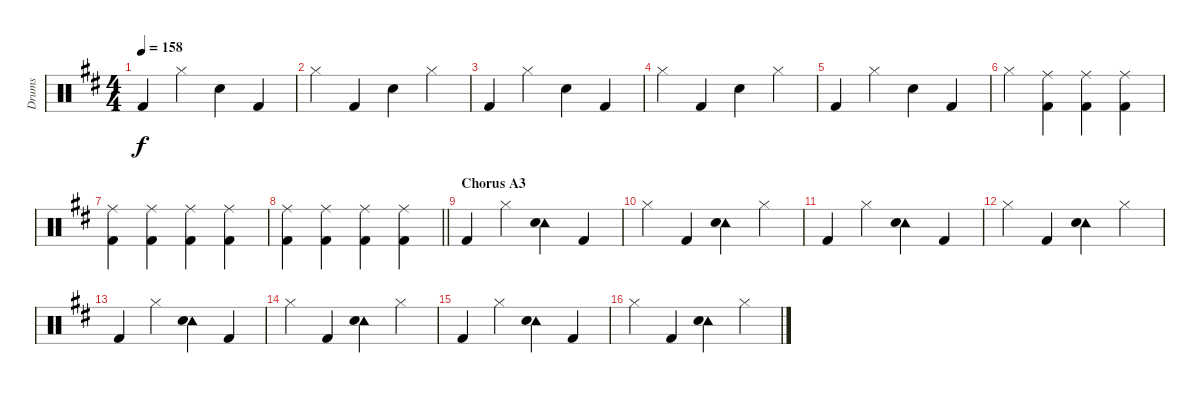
\track ("Drums" "Drums") {instrument percussion}
\staff {score}
\articulation defaults
\ts (4 4)
\tempo 158
\clef neutral
\ks d "Kick (hit) 2".4{dy f} "Hi-Hat (closed)".4 "Snare (hit) 2".4 "Kick (hit) 2".4
|
"Hi-Hat (closed)".4 "Kick (hit) 2".4 "Snare (hit) 2".4 "Hi-Hat (closed)".4 |
"Kick (hit) 2".4 "Hi-Hat (closed)".4 "Snare (hit) 2".4 "Kick (hit) 2".4 |
"Hi-Hat (closed)".4 "Kick (hit) 2".4 "Snare (hit) 2".4 "Hi-Hat (closed)".4 |
"Kick (hit) 2".4 "Hi-Hat (closed)".4 "Snare (hit) 2".4 "Kick (hit) 2".4 |
"Hi-Hat (closed)".4{volume 2} ("Ride (middle)" "Kick (hit) 2").4{volume 4} ("Ride (middle)" "Kick (hit) 2").4 ("Ride (middle)" "Kick (hit) 2").4 |
("Ride (middle)" "Kick (hit) 2").4 ("Ride (middle)" "Kick (hit) 2").4 ("Ride (middle)" "Kick (hit) 2").4 ("Ride (middle)" "Kick (hit) 2").4 |
\barLineRight lightlight
("Ride (middle)" "Kick (hit) 2").4 ("Ride (middle)" "Kick (hit) 2").4 ("Ride (middle)" "Kick (hit) 2").4 ("Ride (middle)" "Kick (hit) 2").4 |
\section ("" "Chorus A3")
"Kick (hit) 2".4{volume 8} "Hi-Hat (closed)".4 ("Tambourine (hit)" "Snare (hit) 2").4 "Kick (hit) 2".4 |
"Hi-Hat (closed)".4 "Kick (hit) 2".4 ("Tambourine (hit)" "Snare (hit) 2").4 "Hi-Hat (closed)".4 |
"Kick (hit) 2".4 "Hi-Hat (closed)".4 ("Tambourine (hit)" "Snare (hit) 2").4 "Kick (hit) 2".4 |
"Hi-Hat (closed)".4 "Kick (hit) 2".4 ("Tambourine (hit)" "Snare (hit) 2").4 "Hi-Hat (closed)".4 |
"Kick (hit) 2".4 "Hi-Hat (closed)".4 ("Tambourine (hit)" "Snare (hit) 2").4 "Kick (hit) 2".4 |
"Hi-Hat (closed)".4 "Kick (hit) 2".4 ("Tambourine (hit)" "Snare (hit) 2").4 "Hi-Hat (closed)".4 |
"Kick (hit) 2".4 "Hi-Hat (closed)".4 ("Tambourine (hit)" "Snare (hit) 2").4 "Kick (hit) 2".4 |
"Hi-Hat (closed)".4 "Kick (hit) 2".4 ("Tambourine (hit)" "Snare (hit) 2").4 "Hi-Hat (closed)".4
